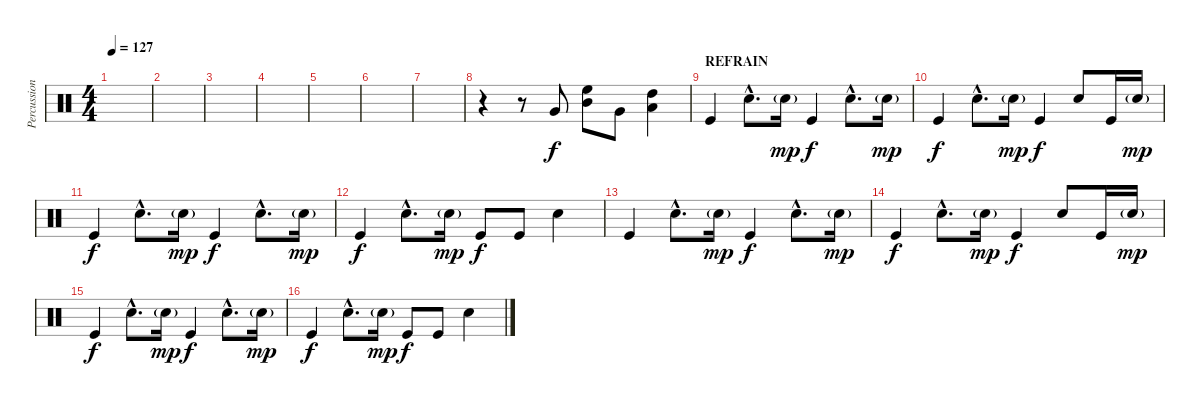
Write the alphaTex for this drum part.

\track ("Percussions" "Percussion") {instrument percussion}
\staff {score}
\articulation defaults
\ts (4 4)
\tempo 127
\clef neutral
\ks c
|
|
|
|
|
|
|
r.4 r.8 "Very Low Tom (hit)".8 ("High Floor Tom (hit)" "Mid Tom (hit)").8 "Very Low Tom (hit)".8 ("High Tom (hit)" "Low Tom (hit)").4 |
\section ("" "REFRAIN")
"Kick (hit)".4 "Electric Snare (hit)"{hac}.8{d} "Electric Snare (hit)"{g}.16{dy mp} "Kick (hit)".4{dy f} "Electric Snare (hit)"{hac}.8{d} "Electric Snare (hit)"{g}.16{dy mp} |
"Kick (hit)".4{dy f} "Electric Snare (hit)"{hac}.8{d} "Electric Snare (hit)"{g}.16{dy mp} "Kick (hit)".4{dy f} "Electric Snare (hit)".8 "Kick (hit)".16 "Electric Snare (hit)"{g}.16{dy mp} |
"Kick (hit)".4{dy f} "Electric Snare (hit)"{hac}.8{d} "Electric Snare (hit)"{g}.16{dy mp} "Kick (hit)".4{dy f} "Electric Snare (hit)"{hac}.8{d} "Electric Snare (hit)"{g}.16{dy mp} |
"Kick (hit)".4{dy f} "Electric Snare (hit)"{hac}.8{d} "Electric Snare (hit)"{g}.16{dy mp} "Kick (hit)".8{dy f} "Kick (hit)".8 "Electric Snare (hit)".4 |
"Kick (hit)".4 "Electric Snare (hit)"{hac}.8{d} "Electric Snare (hit)"{g}.16{dy mp} "Kick (hit)".4{dy f} "Electric Snare (hit)"{hac}.8{d} "Electric Snare (hit)"{g}.16{dy mp} |
"Kick (hit)".4{dy f} "Electric Snare (hit)"{hac}.8{d} "Electric Snare (hit)"{g}.16{dy mp} "Kick (hit)".4{dy f} "Electric Snare (hit)".8 "Kick (hit)".16 "Electric Snare (hit)"{g}.16{dy mp} |
"Kick (hit)".4{dy f} "Electric Snare (hit)"{hac}.8{d} "Electric Snare (hit)"{g}.16{dy mp} "Kick (hit)".4{dy f} "Electric Snare (hit)"{hac}.8{d} "Electric Snare (hit)"{g}.16{dy mp} |
"Kick (hit)".4{dy f} "Electric Snare (hit)"{hac}.8{d} "Electric Snare (hit)"{g}.16{dy mp} "Kick (hit)".8{dy f} "Kick (hit)".8 "Electric Snare (hit)".4
